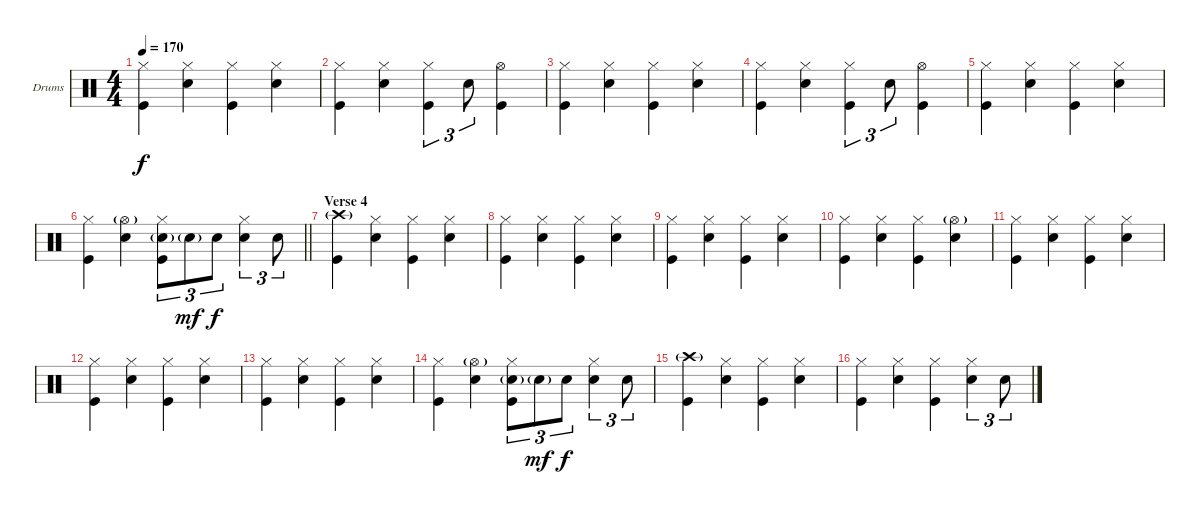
\bracketExtendMode groupsimilarinstruments
\firstSystemTrackNameOrientation horizontal
\otherSystemsTrackNameOrientation horizontal
\track ("Dave Grohl [Drumms]" "Drums") {instrument percussion}
\staff {score}
\articulation defaults
\ts (4 4)
\tempo 170
\clef neutral
\ks c
("Hi-Hat (closed)" "Kick (hit)").4{dy f} ("Hi-Hat (closed)" "Snare (hit) 2").4 ("Hi-Hat (closed)" "Kick (hit)").4 ("Hi-Hat (closed)" "Snare (hit) 2").4 |
("Hi-Hat (closed)" "Kick (hit)").4 ("Hi-Hat (closed)" "Snare (hit) 2").4 ("Hi-Hat (closed)" "Kick (hit)").4{tu (3 2)} "Snare (hit) 2".8{tu (3 2)} ("Hi-Hat (open)" "Kick (hit)").4 |
("Hi-Hat (closed)" "Kick (hit)").4 ("Hi-Hat (closed)" "Snare (hit) 2").4 ("Hi-Hat (closed)" "Kick (hit)").4 ("Hi-Hat (closed)" "Snare (hit) 2").4 |
("Hi-Hat (closed)" "Kick (hit)").4 ("Hi-Hat (closed)" "Snare (hit) 2").4 ("Hi-Hat (closed)" "Kick (hit)").4{tu (3 2)} "Snare (hit) 2".8{tu (3 2)} ("Hi-Hat (open)" "Kick (hit)").4 |
("Hi-Hat (closed)" "Kick (hit)").4 ("Hi-Hat (closed)" "Snare (hit) 2").4 ("Hi-Hat (closed)" "Kick (hit)").4 ("Hi-Hat (closed)" "Snare (hit) 2").4 |
\barLineRight lightlight
("Hi-Hat (closed)" "Kick (hit)").4 ("Hi-Hat (open)"{g} "Snare (hit) 2").4 ("Hi-Hat (closed)" "Snare (hit) 2"{g} "Kick (hit)").8{tu (3 2)} "Snare (hit) 2"{g}.8{tu (3 2) dy mf} "Snare (hit) 2".8{tu (3 2) dy f} ("Hi-Hat (closed)" "Snare (hit) 2").4{tu (3 2)} "Snare (hit) 2".8{tu (3 2)} |
\section ("" "Verse 4")
("Crash high (hit)"{g} "Kick (hit)").4 ("Hi-Hat (closed)" "Snare (hit) 2").4 ("Hi-Hat (closed)" "Kick (hit)").4 ("Hi-Hat (closed)" "Snare (hit) 2").4 |
("Hi-Hat (closed)" "Kick (hit)").4 ("Hi-Hat (closed)" "Snare (hit) 2").4 ("Hi-Hat (closed)" "Kick (hit)").4 ("Hi-Hat (closed)" "Snare (hit) 2").4 |
("Hi-Hat (closed)" "Kick (hit)").4 ("Hi-Hat (closed)" "Snare (hit) 2").4 ("Hi-Hat (closed)" "Kick (hit)").4 ("Hi-Hat (closed)" "Snare (hit) 2").4 |
("Hi-Hat (closed)" "Kick (hit)").4 ("Hi-Hat (closed)" "Snare (hit) 2").4 ("Hi-Hat (closed)" "Kick (hit)").4 ("Hi-Hat (open)"{g} "Snare (hit) 2").4 |
("Hi-Hat (closed)" "Kick (hit)").4 ("Hi-Hat (closed)" "Snare (hit) 2").4 ("Hi-Hat (closed)" "Kick (hit)").4 ("Hi-Hat (closed)" "Snare (hit) 2").4 |
("Hi-Hat (closed)" "Kick (hit)").4 ("Hi-Hat (closed)" "Snare (hit) 2").4 ("Hi-Hat (closed)" "Kick (hit)").4 ("Hi-Hat (closed)" "Snare (hit) 2").4 |
("Hi-Hat (closed)" "Kick (hit)").4 ("Hi-Hat (closed)" "Snare (hit) 2").4 ("Hi-Hat (closed)" "Kick (hit)").4 ("Hi-Hat (closed)" "Snare (hit) 2").4 |
("Hi-Hat (closed)" "Kick (hit)").4 ("Hi-Hat (open)"{g} "Snare (hit) 2").4 ("Hi-Hat (closed)" "Snare (hit) 2"{g} "Kick (hit)").8{tu (3 2)} "Snare (hit) 2"{g}.8{tu (3 2) dy mf} "Snare (hit) 2".8{tu (3 2) dy f} ("Hi-Hat (closed)" "Snare (hit) 2").4{tu (3 2)} "Snare (hit) 2".8{tu (3 2)} |
("Crash high (hit)"{g} "Kick (hit)").4 ("Hi-Hat (closed)" "Snare (hit) 2").4 ("Hi-Hat (closed)" "Kick (hit)").4 ("Hi-Hat (closed)" "Snare (hit) 2").4 |
("Hi-Hat (closed)" "Kick (hit)").4 ("Hi-Hat (closed)" "Snare (hit) 2").4 ("Hi-Hat (closed)" "Kick (hit)").4 ("Hi-Hat (closed)" "Snare (hit) 2").4{tu (3 2)} "Snare (hit) 2".8{tu (3 2)}
